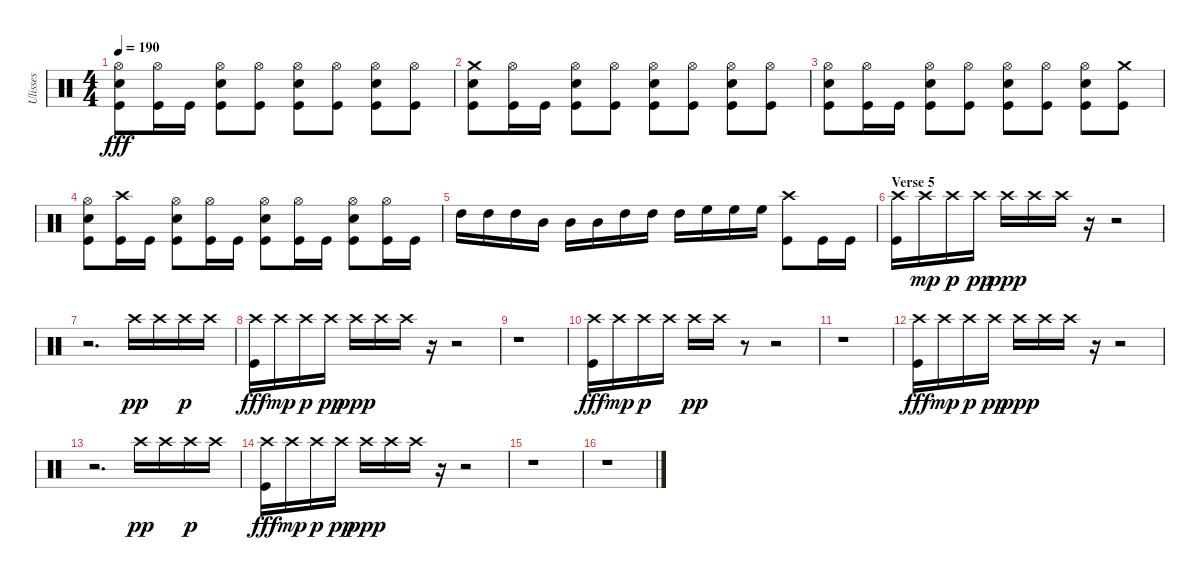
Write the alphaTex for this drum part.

\track ("Ulisses" "Ulisses") {instrument percussion}
\staff {score}
\articulation defaults
\ts (4 4)
\tempo 190
\clef neutral
\ks c
("Hi-Hat (open)" "Electric Snare (hit)" "Kick (hit)").8{dy fff} ("Hi-Hat (open)" "Kick (hit)").16 "Kick (hit)".16 ("Hi-Hat (open)" "Electric Snare (hit)" "Kick (hit)").8 ("Hi-Hat (open)" "Kick (hit)").8 ("Hi-Hat (open)" "Electric Snare (hit)" "Kick (hit)").8 ("Hi-Hat (open)" "Kick (hit)").8 ("Hi-Hat (open)" "Electric Snare (hit)" "Kick (hit)").8 ("Hi-Hat (open)" "Kick (hit)").8 |
("Crash medium (hit)" "Electric Snare (hit)" "Kick (hit)").8 ("Hi-Hat (open)" "Kick (hit)").16 "Kick (hit)".16 ("Hi-Hat (open)" "Electric Snare (hit)" "Kick (hit)").8 ("Hi-Hat (open)" "Kick (hit)").8 ("Hi-Hat (open)" "Electric Snare (hit)" "Kick (hit)").8 ("Hi-Hat (open)" "Kick (hit)").8 ("Hi-Hat (open)" "Electric Snare (hit)" "Kick (hit)").8 ("Hi-Hat (open)" "Kick (hit)").8 |
("Hi-Hat (open)" "Electric Snare (hit)" "Kick (hit)").8 ("Hi-Hat (open)" "Kick (hit)").16 "Kick (hit)".16 ("Hi-Hat (open)" "Electric Snare (hit)" "Kick (hit)").8 ("Hi-Hat (open)" "Kick (hit)").8 ("Hi-Hat (open)" "Electric Snare (hit)" "Kick (hit)").8 ("Hi-Hat (open)" "Kick (hit)").8 ("Hi-Hat (open)" "Electric Snare (hit)" "Kick (hit)").8 ("Crash medium (hit)" "Kick (hit)").8 |
("Hi-Hat (open)" "Electric Snare (hit)" "Kick (hit)").8 ("Crash high (hit)" "Kick (hit)").16 "Kick (hit)".16 ("Hi-Hat (open)" "Electric Snare (hit)" "Kick (hit)").8 ("Hi-Hat (open)" "Kick (hit)").16 "Kick (hit)".16 ("Hi-Hat (open)" "Electric Snare (hit)" "Kick (hit)").8 ("Hi-Hat (open)" "Kick (hit)").16 "Kick (hit)".16 ("Hi-Hat (open)" "Electric Snare (hit)" "Kick (hit)").8 ("Hi-Hat (open)" "Kick (hit)").16 "Kick (hit)".16 |
"High Tom (hit)".16 "High Tom (hit)".16 "High Tom (hit)".16 "Mid Tom (hit)".16 "Mid Tom (hit)".16 "Mid Tom (hit)".16 "High Tom (hit)".16 "High Tom (hit)".16 "High Tom (hit)".16 "High Floor Tom (hit)".16 "High Floor Tom (hit)".16 "High Floor Tom (hit)".16 ("Crash high (hit)" "Kick (hit)").8 "Kick (hit)".16 "Kick (hit)".16 |
\section ("" "Verse 5")
("Crash high (hit)" "Kick (hit)").16 "Crash high (hit)".16{dy mp} "Crash high (hit)".16{dy p} "Crash high (hit)".16{dy pp} "Crash high (hit)".16{dy ppp} "Crash high (hit)".16 "Crash high (hit)".16 r.16 r.2 |
r.2{d} "Crash high (hit)".16{dy pp} "Crash high (hit)".16 "Crash high (hit)".16{dy p} "Crash high (hit)".16 |
("Crash high (hit)" "Kick (hit)").16{dy fff} "Crash high (hit)".16{dy mp} "Crash high (hit)".16{dy p} "Crash high (hit)".16{dy pp} "Crash high (hit)".16{dy ppp} "Crash high (hit)".16 "Crash high (hit)".16 r.16 r.2 |
r.1 |
("Crash high (hit)" "Kick (hit)").16{dy fff} "Crash high (hit)".16{dy mp} "Crash high (hit)".16{dy p} "Crash high (hit)".16 "Crash high (hit)".16{dy pp} "Crash high (hit)".16 r.8 r.2 |
r.1 |
("Crash high (hit)" "Kick (hit)").16{dy fff} "Crash high (hit)".16{dy mp} "Crash high (hit)".16{dy p} "Crash high (hit)".16{dy pp} "Crash high (hit)".16{dy ppp} "Crash high (hit)".16 "Crash high (hit)".16 r.16 r.2 |
r.2{d} "Crash high (hit)".16{dy pp} "Crash high (hit)".16 "Crash high (hit)".16{dy p} "Crash high (hit)".16 |
("Crash high (hit)" "Kick (hit)").16{dy fff} "Crash high (hit)".16{dy mp} "Crash high (hit)".16{dy p} "Crash high (hit)".16{dy pp} "Crash high (hit)".16{dy ppp} "Crash high (hit)".16 "Crash high (hit)".16 r.16 r.2 |
r.1 |
r.1
